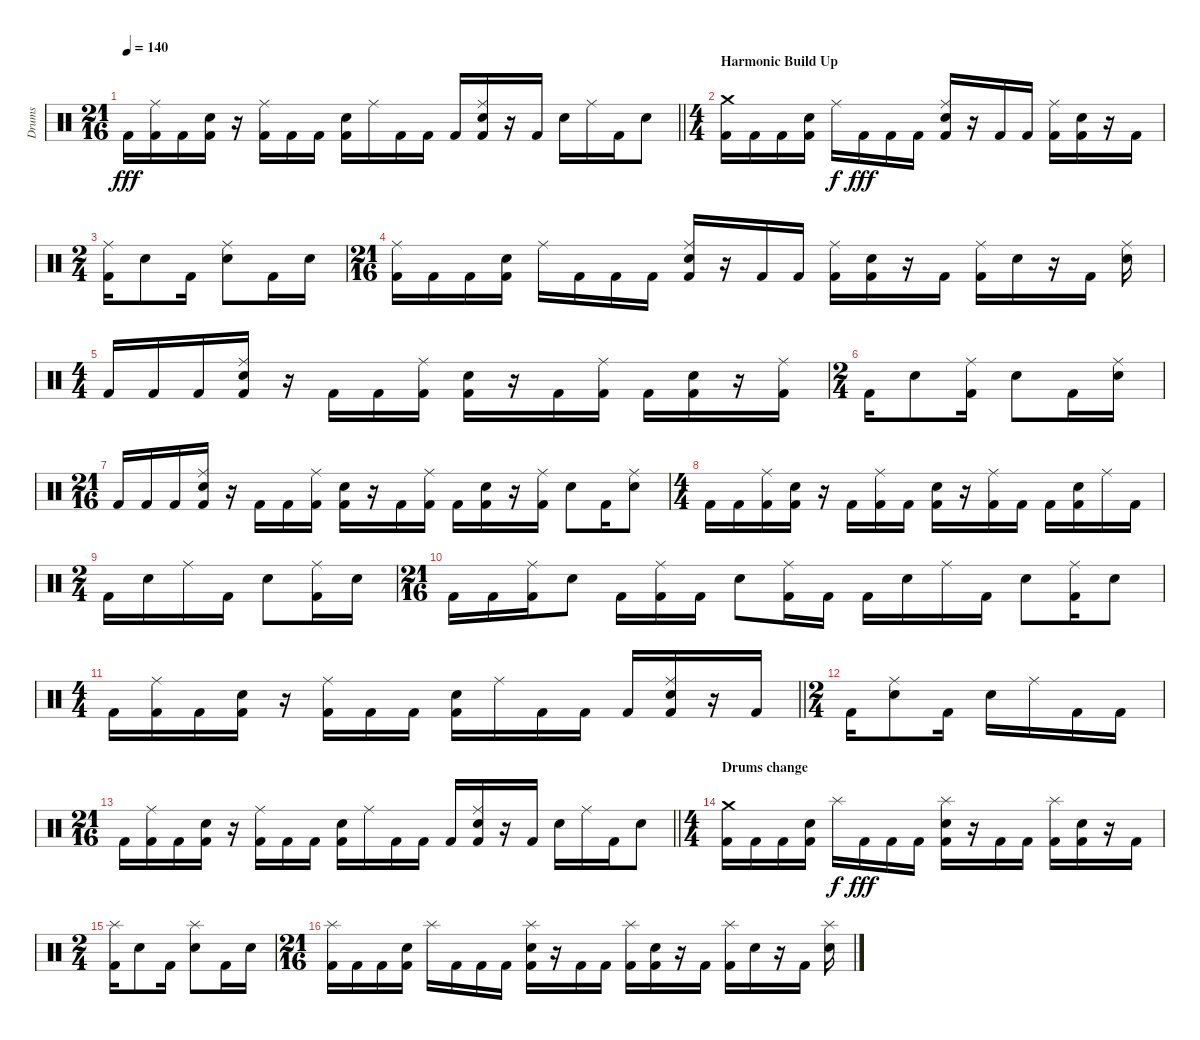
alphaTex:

\track ("Drums" "Drums") {instrument percussion}
\staff {score}
\articulation defaults
\ts (21 16)
\tempo 140
\clef neutral
\barLineRight lightlight
\ks c "Kick (hit) 2".16{dy fff}
("Ride (middle)" "Kick (hit) 2").16 "Kick (hit) 2".16 ("Electric Snare (hit)" "Kick (hit) 2").16 r.16 ("Ride (middle)" "Kick (hit) 2").16 "Kick (hit) 2".16 "Kick (hit) 2".16 ("Electric Snare (hit)" "Kick (hit) 2").16 "Ride (middle)".16 "Kick (hit) 2".16 "Kick (hit) 2".16 "Kick (hit) 2".16 ("Ride (middle)" "Electric Snare (hit)" "Kick (hit) 2").16 r.16 "Kick (hit) 2".16 "Electric Snare (hit)".16 "Ride (middle)".16 "Kick (hit) 2".16 "Electric Snare (hit)".8 |
\ts (4 4)
\section ("" "Harmonic Build Up")
("Crash medium (hit)" "Kick (hit) 2").16 "Kick (hit) 2".16 "Kick (hit) 2".16 ("Electric Snare (hit)" "Kick (hit) 2").16 "Ride (middle)".16{dy f} "Kick (hit) 2".16{dy fff} "Kick (hit) 2".16 "Kick (hit) 2".16 ("Ride (middle)" "Electric Snare (hit)" "Kick (hit) 2").16 r.16 "Kick (hit) 2".16 "Kick (hit) 2".16 ("Ride (middle)" "Kick (hit) 2").16 ("Electric Snare (hit)" "Kick (hit) 2").16 r.16 "Kick (hit) 2".16 |
\ts (2 4)
("Ride (middle)" "Kick (hit) 2").16 "Electric Snare (hit)".8 "Kick (hit) 2".16 ("Ride (middle)" "Electric Snare (hit)").8 "Kick (hit) 2".16 "Electric Snare (hit)".16 |
\ts (21 16)
("Ride (middle)" "Kick (hit) 2").16 "Kick (hit) 2".16 "Kick (hit) 2".16 ("Electric Snare (hit)" "Kick (hit) 2").16 "Ride (middle)".16 "Kick (hit) 2".16 "Kick (hit) 2".16 "Kick (hit) 2".16 ("Ride (middle)" "Electric Snare (hit)" "Kick (hit) 2").16 r.16 "Kick (hit) 2".16 "Kick (hit) 2".16 ("Ride (middle)" "Kick (hit) 2").16 ("Electric Snare (hit)" "Kick (hit) 2").16 r.16 "Kick (hit) 2".16 ("Ride (middle)" "Kick (hit) 2").16 "Electric Snare (hit)".16 r.16 "Kick (hit) 2".16 ("Ride (middle)" "Electric Snare (hit)").16 |
\ts (4 4)
"Kick (hit) 2".16 "Kick (hit) 2".16 "Kick (hit) 2".16 ("Ride (middle)" "Electric Snare (hit)" "Kick (hit) 2").16 r.16 "Kick (hit) 2".16 "Kick (hit) 2".16 ("Ride (middle)" "Kick (hit) 2").16 ("Electric Snare (hit)" "Kick (hit) 2").16 r.16 "Kick (hit) 2".16 ("Ride (middle)" "Kick (hit) 2").16 "Kick (hit) 2".16 ("Electric Snare (hit)" "Kick (hit) 2").16 r.16 ("Ride (middle)" "Kick (hit) 2").16 |
\ts (2 4)
"Kick (hit) 2".16 "Electric Snare (hit)".8 ("Ride (middle)" "Kick (hit) 2").16 "Electric Snare (hit)".8 "Kick (hit) 2".16 ("Ride (middle)" "Electric Snare (hit)").16 |
\ts (21 16)
"Kick (hit) 2".16 "Kick (hit) 2".16 "Kick (hit) 2".16 ("Ride (middle)" "Electric Snare (hit)" "Kick (hit) 2").16 r.16 "Kick (hit) 2".16 "Kick (hit) 2".16 ("Ride (middle)" "Kick (hit) 2").16 ("Electric Snare (hit)" "Kick (hit) 2").16 r.16 "Kick (hit) 2".16 ("Ride (middle)" "Kick (hit) 2").16 "Kick (hit) 2".16 ("Electric Snare (hit)" "Kick (hit) 2").16 r.16 ("Ride (middle)" "Kick (hit) 2").16 "Electric Snare (hit)".8 "Kick (hit) 2".16 ("Ride (middle)" "Electric Snare (hit)").8 |
\ts (4 4)
"Kick (hit) 2".16 "Kick (hit) 2".16 ("Ride (middle)" "Kick (hit) 2").16 ("Electric Snare (hit)" "Kick (hit) 2").16 r.16 "Kick (hit) 2".16 ("Ride (middle)" "Kick (hit) 2").16 "Kick (hit) 2".16 ("Electric Snare (hit)" "Kick (hit) 2").16 r.16 ("Ride (middle)" "Kick (hit) 2").16 "Kick (hit) 2".16 "Kick (hit) 2".16 ("Electric Snare (hit)" "Kick (hit) 2").16 "Ride (middle)".16 "Kick (hit) 2".16 |
\ts (2 4)
"Kick (hit) 2".16 "Electric Snare (hit)".16 "Ride (middle)".16 "Kick (hit) 2".16 "Electric Snare (hit)".8 ("Ride (middle)" "Kick (hit) 2").16 "Electric Snare (hit)".16 |
\ts (21 16)
"Kick (hit) 2".16 "Kick (hit) 2".16 ("Ride (middle)" "Kick (hit) 2").16 "Electric Snare (hit)".8 "Kick (hit) 2".16 ("Ride (middle)" "Kick (hit) 2").16 "Kick (hit) 2".16 "Electric Snare (hit)".8 ("Ride (middle)" "Kick (hit) 2").16 "Kick (hit) 2".16 "Kick (hit) 2".16 "Electric Snare (hit)".16 "Ride (middle)".16 "Kick (hit) 2".16 "Electric Snare (hit)".8 ("Ride (middle)" "Kick (hit) 2").16 "Electric Snare (hit)".8 |
\ts (4 4)
\barLineRight lightlight "Kick (hit) 2".16
("Ride (middle)" "Kick (hit) 2").16 "Kick (hit) 2".16 ("Electric Snare (hit)" "Kick (hit) 2").16 r.16 ("Ride (middle)" "Kick (hit) 2").16 "Kick (hit) 2".16 "Kick (hit) 2".16 ("Electric Snare (hit)" "Kick (hit) 2").16 "Ride (middle)".16 "Kick (hit) 2".16 "Kick (hit) 2".16 "Kick (hit) 2".16 ("Ride (middle)" "Electric Snare (hit)" "Kick (hit) 2").16 r.16 "Kick (hit) 2".16 |
\ts (2 4)
"Kick (hit) 2".16 ("Ride (middle)" "Electric Snare (hit)").8 "Kick (hit) 2".16 "Electric Snare (hit)".16 "Ride (middle)".16 "Kick (hit) 2".16 "Kick (hit) 2".16 |
\ts (21 16)
\barLineRight lightlight "Kick (hit) 2".16
("Ride (middle)" "Kick (hit) 2").16 "Kick (hit) 2".16 ("Electric Snare (hit)" "Kick (hit) 2").16 r.16 ("Ride (middle)" "Kick (hit) 2").16 "Kick (hit) 2".16 "Kick (hit) 2".16 ("Electric Snare (hit)" "Kick (hit) 2").16 "Ride (middle)".16 "Kick (hit) 2".16 "Kick (hit) 2".16 "Kick (hit) 2".16 ("Ride (middle)" "Electric Snare (hit)" "Kick (hit) 2").16 r.16 "Kick (hit) 2".16 "Electric Snare (hit)".16 "Ride (middle)".16 "Kick (hit) 2".16 "Electric Snare (hit)".8 |
\ts (4 4)
\section ("" "Drums change")
("Crash medium (hit)" "Kick (hit) 2").16 "Kick (hit) 2".16 "Kick (hit) 2".16 ("Electric Snare (hit)" "Kick (hit) 2").16 "Splash (hit)".16{dy f} "Kick (hit) 2".16{dy fff} "Kick (hit) 2".16 "Kick (hit) 2".16 ("Splash (hit)" "Electric Snare (hit)" "Kick (hit) 2").16 r.16 "Kick (hit) 2".16 "Kick (hit) 2".16 ("Splash (hit)" "Kick (hit) 2").16 ("Electric Snare (hit)" "Kick (hit) 2").16 r.16 "Kick (hit) 2".16 |
\ts (2 4)
("Splash (hit)" "Kick (hit) 2").16 "Electric Snare (hit)".8 "Kick (hit) 2".16 ("Splash (hit)" "Electric Snare (hit)").8 "Kick (hit) 2".16 "Electric Snare (hit)".16 |
\ts (21 16)
("Splash (hit)" "Kick (hit) 2").16 "Kick (hit) 2".16 "Kick (hit) 2".16 ("Electric Snare (hit)" "Kick (hit) 2").16 "Splash (hit)".16 "Kick (hit) 2".16 "Kick (hit) 2".16 "Kick (hit) 2".16 ("Splash (hit)" "Electric Snare (hit)" "Kick (hit) 2").16 r.16 "Kick (hit) 2".16 "Kick (hit) 2".16 ("Splash (hit)" "Kick (hit) 2").16 ("Electric Snare (hit)" "Kick (hit) 2").16 r.16 "Kick (hit) 2".16 ("Splash (hit)" "Kick (hit) 2").16 "Electric Snare (hit)".16 r.16 "Kick (hit) 2".16 ("Splash (hit)" "Electric Snare (hit)").16
